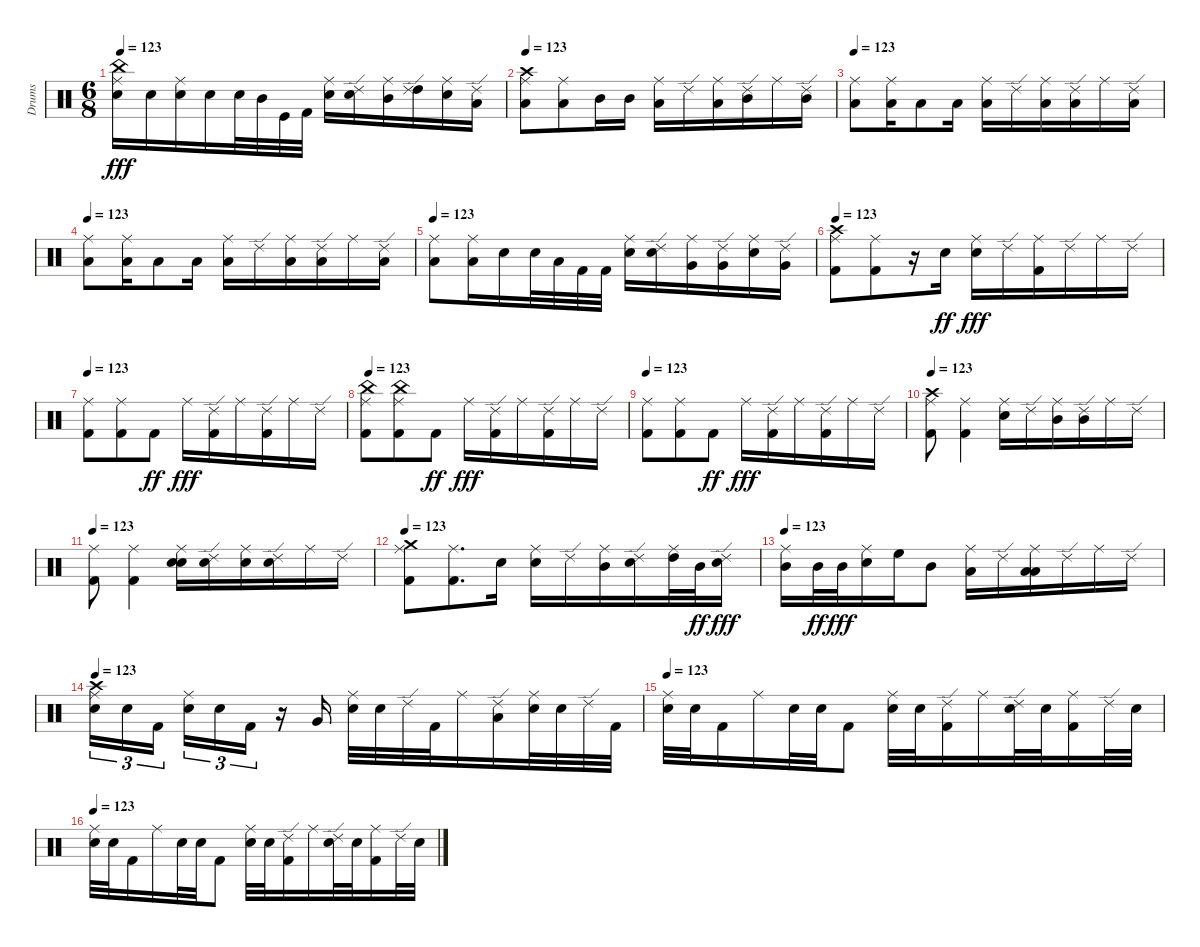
\track ("Drums" "Drums") {instrument percussion}
\staff {score}
\articulation defaults
\ts (6 8)
\tempo 123
\clef neutral
\ks c
("Snare (hit) 2" "Ride (middle)" "China (hit)").16{dy fff} "Snare (hit) 2".16 ("Electric Snare (hit)" "Ride (middle)").16 "Snare (hit) 2".16 "Snare (hit) 2".32 "Mid Tom (hit)".32 "Kick (hit)".32 "Kick (hit) 2".32 ("Snare (hit) 2" "Ride (middle)").16 ("Snare (hit) 2" "Ride (edge) 2").16 ("Mid Tom (hit)" "Ride (middle)").16 ("High Tom (hit)" "Ride (edge) 2").16 ("Snare (hit) 2" "Ride (middle)").16 ("Low Tom (hit)" "Ride (edge) 2").16 |
\tempo 123
("Low Floor Tom (hit)" "Ride (middle)" "Crash high (hit)").8 ("Low Floor Tom (hit)" "Ride (middle)").8 "Mid Tom (hit)".16 "Mid Tom (hit)".16 ("Low Floor Tom (hit)" "Ride (middle)").16 "Ride (edge) 2".16 ("Low Floor Tom (hit)" "Ride (middle)").16 ("Mid Tom (hit)" "Ride (edge) 2").16 "Ride (middle)".16 ("Mid Tom (hit)" "Ride (edge) 2").16 |
\tempo 123
("Low Floor Tom (hit)" "Ride (middle)").8 ("Low Floor Tom (hit)" "Ride (middle)").16 "Low Tom (hit)".8 "Low Tom (hit)".16 ("Low Floor Tom (hit)" "Ride (middle)").16 "Ride (edge) 2".16 ("Low Floor Tom (hit)" "Ride (middle)").16 ("Low Tom (hit)" "Ride (edge) 2").16 "Ride (middle)".16 ("Low Tom (hit)" "Ride (edge) 2").16 |
\tempo 123
("Low Floor Tom (hit)" "Ride (middle)").8 ("Low Floor Tom (hit)" "Ride (middle)").16 "Low Tom (hit)".8 "Low Tom (hit)".16 ("Low Floor Tom (hit)" "Ride (middle)").16 "Ride (edge) 2".16 ("Low Floor Tom (hit)" "Ride (middle)").16 ("Low Tom (hit)" "Ride (edge) 2").16 "Ride (middle)".16 ("Low Tom (hit)" "Ride (edge) 2").16 |
\tempo 123
("Low Floor Tom (hit)" "Ride (middle)").8 ("Low Floor Tom (hit)" "Ride (middle)").16 "Snare (hit) 2".16 "Snare (hit) 2".32 "Low Floor Tom (hit)".32 "Kick (hit) 2".32 "Kick (hit) 2".32 ("Snare (hit) 2" "Ride (middle)").16 ("Snare (hit) 2" "Ride (edge) 2").16 ("Very Low Tom (hit)" "Ride (middle)").16 ("Very Low Tom (hit)" "Ride (edge) 2").16 ("Snare (hit) 2" "Ride (middle)").16 ("Very Low Tom (hit)" "Ride (edge) 2").16 |
\tempo 123
("Kick (hit) 2" "Ride (middle)" "Crash high (hit)").8 ("Kick (hit) 2" "Ride (middle)").8 r.16 "Snare (hit) 2".16{dy ff} ("Snare (hit) 2" "Ride (middle)").16{dy fff} "Ride (edge) 2".16 ("Kick (hit) 2" "Ride (middle)").16 "Ride (edge) 2".16 "Ride (middle)".16 "Ride (edge) 2".16 |
\tempo 123
("Kick (hit) 2" "Ride (middle)").8 ("Kick (hit) 2" "Ride (middle)").8 "Kick (hit) 2".8{dy ff} "Ride (middle)".16{dy fff} ("Kick (hit) 2" "Ride (edge) 2").16 "Ride (middle)".16 ("Kick (hit) 2" "Ride (edge) 2").16 "Ride (middle)".16 "Ride (edge) 2".16 |
\tempo 123
("Kick (hit) 2" "Ride (middle)" "China (hit)").8 ("Kick (hit) 2" "Ride (middle)" "China (hit)").8 "Kick (hit) 2".8{dy ff} "Ride (middle)".16{dy fff} ("Kick (hit) 2" "Ride (edge) 2").16 "Ride (middle)".16 ("Kick (hit) 2" "Ride (edge) 2").16 "Ride (middle)".16 "Ride (edge) 2".16 |
\tempo 123
("Kick (hit) 2" "Ride (middle)").8 ("Kick (hit) 2" "Ride (middle)").8 "Kick (hit) 2".8{dy ff} "Ride (middle)".16{dy fff} ("Kick (hit) 2" "Ride (edge) 2").16 "Ride (middle)".16 ("Kick (hit) 2" "Ride (edge) 2").16 "Ride (middle)".16 "Ride (edge) 2".16 |
\tempo 123
("Kick (hit) 2" "Ride (middle)" "Crash high (hit)").8 ("Kick (hit) 2" "Ride (middle)").4 ("Snare (hit) 2" "Ride (middle)").16 "Ride (edge) 2".16 ("Mid Tom (hit)" "Ride (middle)").16 ("Mid Tom (hit)" "Ride (edge) 2").16 "Ride (middle)".16 "Ride (edge) 2".16 |
\tempo 123
("Kick (hit) 2" "Ride (middle)").8 ("Kick (hit) 2" "Ride (middle)").4 ("Snare (hit) 2" "Snare (hit) 2" "Ride (middle)").16 ("Snare (hit) 2" "Ride (edge) 2").16 ("Snare (hit) 2" "Ride (middle)").16 ("Snare (hit) 2" "Ride (edge) 2").16 "Ride (middle)".16 "Ride (edge) 2".16 |
\tempo 123
("Kick (hit) 2" "Ride (middle)" "Crash medium (hit)").8 ("Kick (hit) 2" "Ride (middle)").8{d} "Snare (hit) 2".16 ("Snare (hit) 2" "Ride (middle)").16 "Ride (edge) 2".16 ("Mid Tom (hit)" "Ride (middle)").16 ("Snare (hit) 2" "Ride (edge) 2").16 ("High Tom (hit)" "Ride (middle)").32 "Mid Tom (hit)".32{dy ff} ("Electric Snare (hit)" "Ride (edge) 2").16{dy fff} |
\tempo 123
("Mid Tom (hit)" "Ride (middle)").16 "Mid Tom (hit)".32{dy ff} "Mid Tom (hit)".32{dy fff} ("Snare (hit) 2" "Ride (middle)").16 "High Floor Tom (hit)".16 "Mid Tom (hit)".8 ("Low Tom (hit)" "Ride (middle)").16 "Ride (edge) 2".16 ("Low Tom (hit)" "Ride (middle)" "Low Tom (hit)").16 "Ride (edge) 2".16 "Ride (middle)".16 "Ride (edge) 2".16 |
\tempo 123
("Electric Snare (hit)" "Ride (middle)" "Crash high (hit)").16{tu (3 2)} "Electric Snare (hit)".16{tu (3 2)} "Kick (hit) 2".16{tu (3 2) beam splitsecondary} ("Electric Snare (hit)" "Ride (middle)").16{tu (3 2)} "Electric Snare (hit)".16{tu (3 2)} "Kick (hit) 2".16{tu (3 2)} r.16 "Very Low Tom (hit)".16 ("Electric Snare (hit)" "Ride (middle)").32 "Electric Snare (hit)".32 "Ride (edge) 2".32 "Kick (hit) 2".32 "Ride (middle)".16 ("Low Floor Tom (hit)" "Ride (edge) 2").16 ("Electric Snare (hit)" "Ride (middle)").32 "Electric Snare (hit)".32 "Ride (edge) 2".32 "Kick (hit) 2".32 |
\tempo 123
("Electric Snare (hit)" "Ride (middle)").32 "Electric Snare (hit)".32 "Kick (hit) 2".16 "Ride (middle)".16 "Electric Snare (hit)".32 "Electric Snare (hit)".32 "Kick (hit) 2".8 ("Electric Snare (hit)" "Ride (middle)").32 "Electric Snare (hit)".32 ("Kick (hit) 2" "Ride (edge) 2").16 "Ride (middle)".16 ("Snare (hit) 2" "Ride (edge) 2").32 "Snare (hit) 2".32 ("Kick (hit) 2" "Ride (middle)").16 "Ride (edge) 2".32 "Snare (hit) 2".32 |
\tempo 123
("Electric Snare (hit)" "Ride (middle)").32 "Electric Snare (hit)".32 "Kick (hit) 2".16 "Ride (middle)".16 "Electric Snare (hit)".32 "Electric Snare (hit)".32 "Kick (hit) 2".8 ("Electric Snare (hit)" "Ride (middle)").32 "Electric Snare (hit)".32 ("Kick (hit) 2" "Ride (edge) 2").16 "Ride (middle)".16 ("Snare (hit) 2" "Ride (edge) 2").32 "Snare (hit) 2".32 ("Kick (hit) 2" "Ride (middle)").16 "Ride (edge) 2".32 "Snare (hit) 2".32
